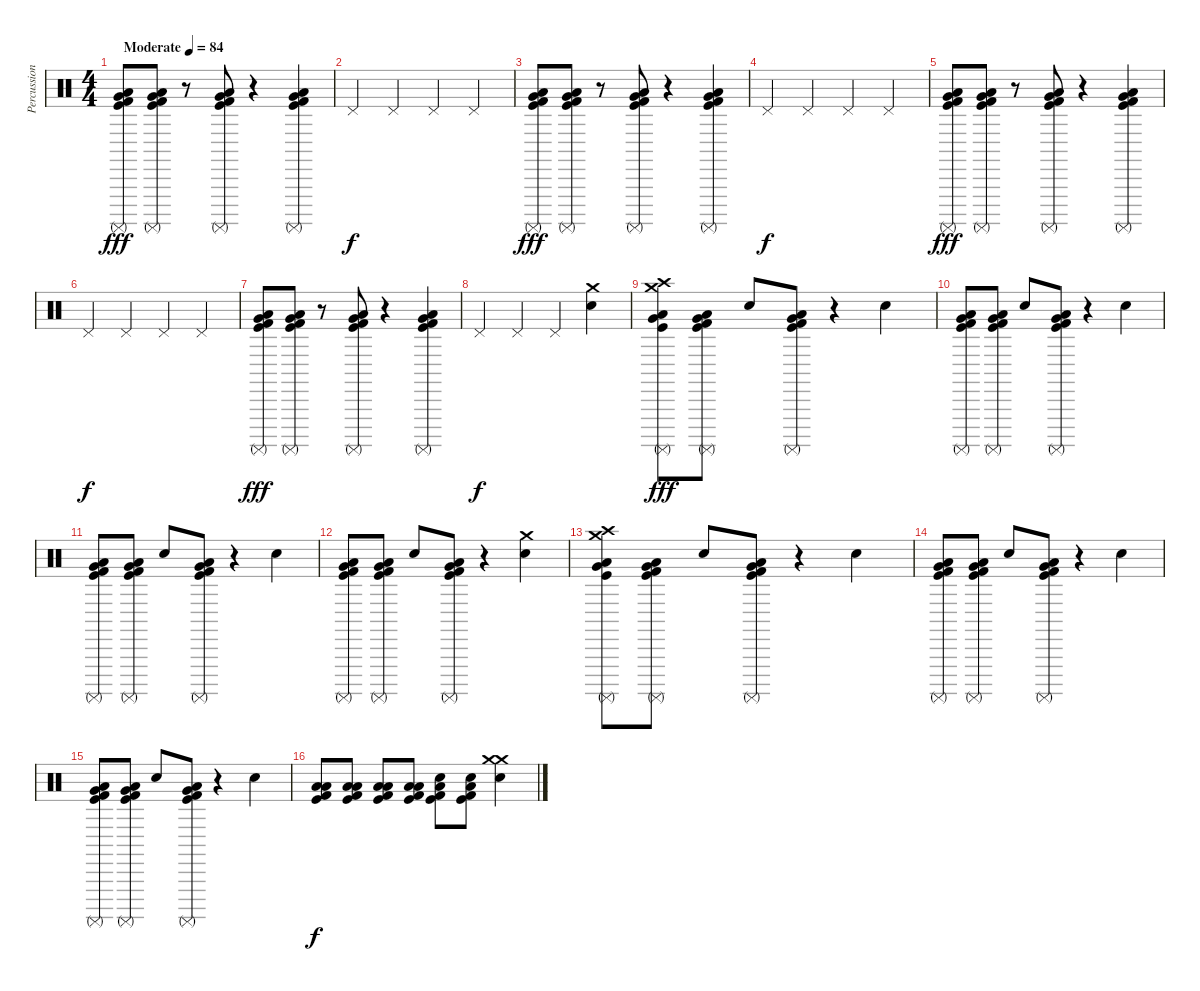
\track ("Percussion" "Percussion") {instrument percussion}
\staff {score}
\articulation defaults
\ts (4 4)
\tempo (84 "Moderate")
\clef neutral
\ks c
("Low Floor Tom (hit)" "Very Low Tom (hit)" "Surdo (mute)" "Kick (hit) 2" "Kick (hit)").8{dy fff} ("Low Floor Tom (hit)" "Very Low Tom (hit)" "Surdo (mute)" "Kick (hit) 2" "Kick (hit)").8 r.8 ("Low Floor Tom (hit)" "Very Low Tom (hit)" "Surdo (mute)" "Kick (hit) 2" "Kick (hit)").8 r.4 ("Low Floor Tom (hit)" "Very Low Tom (hit)" "Surdo (mute)" "Kick (hit) 2" "Kick (hit)").4 |
"Pedal Hi-Hat (hit)".4{dy f} "Pedal Hi-Hat (hit)".4 "Pedal Hi-Hat (hit)".4 "Pedal Hi-Hat (hit)".4 |
("Low Floor Tom (hit)" "Very Low Tom (hit)" "Surdo (mute)" "Kick (hit) 2" "Kick (hit)").8{dy fff} ("Low Floor Tom (hit)" "Very Low Tom (hit)" "Surdo (mute)" "Kick (hit) 2" "Kick (hit)").8 r.8 ("Low Floor Tom (hit)" "Very Low Tom (hit)" "Surdo (mute)" "Kick (hit) 2" "Kick (hit)").8 r.4 ("Low Floor Tom (hit)" "Very Low Tom (hit)" "Surdo (mute)" "Kick (hit) 2" "Kick (hit)").4 |
"Pedal Hi-Hat (hit)".4{dy f} "Pedal Hi-Hat (hit)".4 "Pedal Hi-Hat (hit)".4 "Pedal Hi-Hat (hit)".4 |
("Low Floor Tom (hit)" "Very Low Tom (hit)" "Surdo (mute)" "Kick (hit) 2" "Kick (hit)").8{dy fff} ("Low Floor Tom (hit)" "Very Low Tom (hit)" "Surdo (mute)" "Kick (hit) 2" "Kick (hit)").8 r.8 ("Low Floor Tom (hit)" "Very Low Tom (hit)" "Surdo (mute)" "Kick (hit) 2" "Kick (hit)").8 r.4 ("Low Floor Tom (hit)" "Very Low Tom (hit)" "Surdo (mute)" "Kick (hit) 2" "Kick (hit)").4 |
"Pedal Hi-Hat (hit)".4{dy f} "Pedal Hi-Hat (hit)".4 "Pedal Hi-Hat (hit)".4 "Pedal Hi-Hat (hit)".4 |
("Low Floor Tom (hit)" "Very Low Tom (hit)" "Surdo (mute)" "Kick (hit) 2" "Kick (hit)").8{dy fff} ("Low Floor Tom (hit)" "Very Low Tom (hit)" "Surdo (mute)" "Kick (hit) 2" "Kick (hit)").8 r.8 ("Low Floor Tom (hit)" "Very Low Tom (hit)" "Surdo (mute)" "Kick (hit) 2" "Kick (hit)").8 r.4 ("Low Floor Tom (hit)" "Very Low Tom (hit)" "Surdo (mute)" "Kick (hit) 2" "Kick (hit)").4 |
"Pedal Hi-Hat (hit)".4{dy f} "Pedal Hi-Hat (hit)".4 "Pedal Hi-Hat (hit)".4 ("Crash medium (hit)" "Snare (hit) 2").4 |
("Crash high (hit)" "Low Floor Tom (hit)" "Very Low Tom (hit)" "Surdo (mute)" "Crash medium (hit)" "Kick (hit)").8{dy fff} ("Low Floor Tom (hit)" "Very Low Tom (hit)" "Surdo (mute)" "Kick (hit) 2" "Kick (hit)").8 "Snare (hit) 2".8 ("Low Floor Tom (hit)" "Very Low Tom (hit)" "Surdo (mute)" "Kick (hit) 2" "Kick (hit)").8 r.4 "Snare (hit) 2".4 |
("Low Floor Tom (hit)" "Very Low Tom (hit)" "Surdo (mute)" "Kick (hit) 2" "Kick (hit)").8 ("Low Floor Tom (hit)" "Very Low Tom (hit)" "Surdo (mute)" "Kick (hit) 2" "Kick (hit)").8 "Snare (hit) 2".8 ("Low Floor Tom (hit)" "Very Low Tom (hit)" "Surdo (mute)" "Kick (hit) 2" "Kick (hit)").8 r.4 "Snare (hit) 2".4 |
("Low Floor Tom (hit)" "Very Low Tom (hit)" "Surdo (mute)" "Kick (hit) 2" "Kick (hit)").8 ("Low Floor Tom (hit)" "Very Low Tom (hit)" "Surdo (mute)" "Kick (hit) 2" "Kick (hit)").8 "Snare (hit) 2".8 ("Low Floor Tom (hit)" "Very Low Tom (hit)" "Surdo (mute)" "Kick (hit) 2" "Kick (hit)").8 r.4 "Snare (hit) 2".4 |
("Low Floor Tom (hit)" "Very Low Tom (hit)" "Surdo (mute)" "Kick (hit) 2" "Kick (hit)").8 ("Low Floor Tom (hit)" "Very Low Tom (hit)" "Surdo (mute)" "Kick (hit) 2" "Kick (hit)").8 "Snare (hit) 2".8 ("Low Floor Tom (hit)" "Very Low Tom (hit)" "Surdo (mute)" "Kick (hit) 2" "Kick (hit)").8 r.4 ("Crash medium (hit)" "Snare (hit) 2").4 |
("Crash high (hit)" "Low Floor Tom (hit)" "Very Low Tom (hit)" "Surdo (mute)" "Crash medium (hit)" "Kick (hit)").8 ("Low Floor Tom (hit)" "Very Low Tom (hit)" "Surdo (mute)" "Kick (hit) 2" "Kick (hit)").8 "Snare (hit) 2".8 ("Low Floor Tom (hit)" "Very Low Tom (hit)" "Surdo (mute)" "Kick (hit) 2" "Kick (hit)").8 r.4 "Snare (hit) 2".4 |
("Low Floor Tom (hit)" "Very Low Tom (hit)" "Surdo (mute)" "Kick (hit) 2" "Kick (hit)").8 ("Low Floor Tom (hit)" "Very Low Tom (hit)" "Surdo (mute)" "Kick (hit) 2" "Kick (hit)").8 "Snare (hit) 2".8 ("Low Floor Tom (hit)" "Very Low Tom (hit)" "Surdo (mute)" "Kick (hit) 2" "Kick (hit)").8 r.4 "Snare (hit) 2".4 |
("Low Floor Tom (hit)" "Very Low Tom (hit)" "Surdo (mute)" "Kick (hit) 2" "Kick (hit)").8 ("Low Floor Tom (hit)" "Very Low Tom (hit)" "Surdo (mute)" "Kick (hit) 2" "Kick (hit)").8 "Snare (hit) 2".8 ("Low Floor Tom (hit)" "Very Low Tom (hit)" "Surdo (mute)" "Kick (hit) 2" "Kick (hit)").8 r.4 "Snare (hit) 2".4 |
("Low Floor Tom (hit)" "Low Tom (hit)" "Kick (hit) 2" "Kick (hit)").8{dy f} ("Low Floor Tom (hit)" "Low Tom (hit)" "Kick (hit) 2" "Kick (hit)").8 ("Low Floor Tom (hit)" "Low Tom (hit)" "Kick (hit) 2" "Kick (hit)").8 ("Low Floor Tom (hit)" "Low Tom (hit)" "Kick (hit) 2" "Kick (hit)").8 ("Low Floor Tom (hit)" "Snare (hit) 2" "Kick (hit) 2" "Kick (hit)").8 ("Low Floor Tom (hit)" "Snare (hit) 2" "Kick (hit) 2" "Kick (hit)").8 ("Crash medium (hit)" "Crash medium (hit)" "Snare (hit) 2").4
